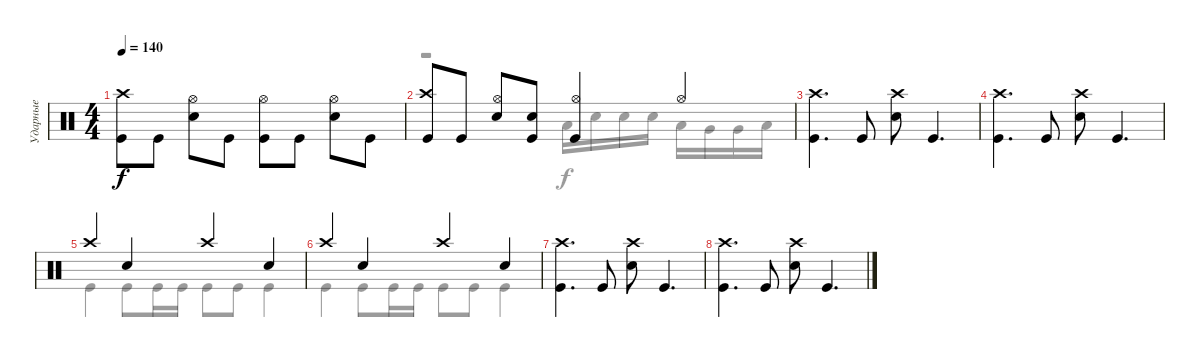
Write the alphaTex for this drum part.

\track ("Ударные" "Ударные") {instrument percussion}
\staff {score}
\articulation defaults
\voice
\ts (4 4)
\tempo 140
\clef neutral
\ks c
("Crash high (hit)" "Kick (hit)").8{dy f} "Kick (hit)".8 ("Hi-Hat (open)" "Electric Snare (hit)").8 "Kick (hit)".8 ("Hi-Hat (open)" "Kick (hit)").8 "Kick (hit)".8 ("Hi-Hat (open)" "Electric Snare (hit)").8 "Kick (hit)".8 |
("Crash high (hit)" "Kick (hit)").8 "Kick (hit)".8 ("Hi-Hat (open)" "Electric Snare (hit)").8 ("Electric Snare (hit)" "Kick (hit)").8 ("Hi-Hat (open)" "Kick (hit)").4 "Hi-Hat (open)".4 |
("Crash high (hit)" "Kick (hit)").4{d balance 16} "Kick (hit)".8{balance 8} ("Crash high (hit)" "Electric Snare (hit)").8{balance 0} "Kick (hit)".4{d balance 8} |
("Crash high (hit)" "Kick (hit)").4{d balance 16} "Kick (hit)".8{balance 8} ("Crash high (hit)" "Electric Snare (hit)").8{balance 0} "Kick (hit)".4{d balance 8} |
"Crash high (hit)".4 "Electric Snare (hit)".4 "Crash high (hit)".4 "Electric Snare (hit)".4 |
"Crash high (hit)".4 "Electric Snare (hit)".4 "Crash high (hit)".4 "Electric Snare (hit)".4 |
("Crash high (hit)" "Kick (hit)").4{d balance 16} "Kick (hit)".8{balance 8} ("Crash high (hit)" "Electric Snare (hit)").8{balance 0} "Kick (hit)".4{d balance 8} |
("Crash high (hit)" "Kick (hit)").4{d balance 16} "Kick (hit)".8{balance 8} ("Crash high (hit)" "Electric Snare (hit)").8{balance 0} "Kick (hit)".4{d balance 8}
\voice
\clef neutral
\ottava regular
\simile none
\ks c
|
r.2 "Low Floor Tom (hit)".16 "Electric Snare (hit)".16 "Electric Snare (hit)".16 "Electric Snare (hit)".16 "Low Tom (hit)".16 "Very Low Tom (hit)".16 "Very Low Tom (hit)".16 "Low Floor Tom (hit)".16 |
|
|
"Kick (hit)".4 "Kick (hit)".8 "Kick (hit)".16 "Kick (hit)".16 "Kick (hit)".8 "Kick (hit)".8 "Kick (hit)".4 |
"Kick (hit)".4 "Kick (hit)".8 "Kick (hit)".16 "Kick (hit)".16 "Kick (hit)".8 "Kick (hit)".8 "Kick (hit)".4 |
|
